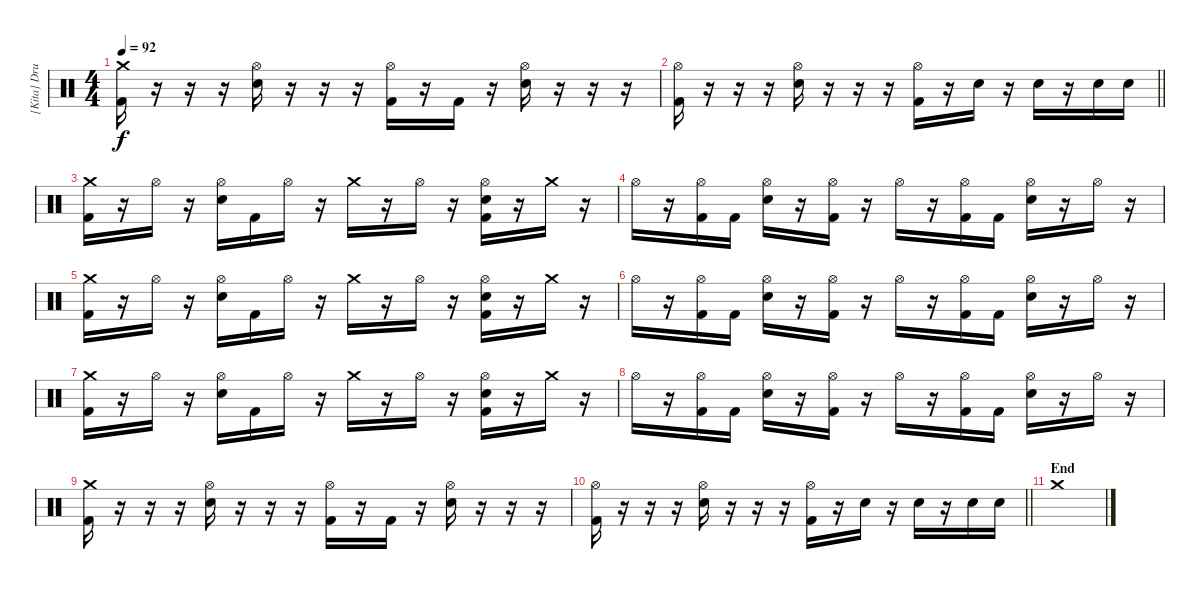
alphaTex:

\track ("[Kita] Drum" "[Kita] Dru") {instrument percussion}
\staff {score}
\articulation defaults
\ts (4 4)
\tempo 92
\clef neutral
\ks c
("Kick (hit) 2" "Crash medium (hit)").16{dy f} r.16 r.16 r.16 ("Hi-Hat (open)" "Electric Snare (hit)").16 r.16 r.16 r.16 ("Kick (hit) 2" "Hi-Hat (open)").16 r.16 "Kick (hit) 2".16 r.16 ("Hi-Hat (open)" "Electric Snare (hit)").16 r.16 r.16 r.16 |
\barLineRight lightlight
("Kick (hit) 2" "Hi-Hat (open)").16 r.16 r.16 r.16 ("Hi-Hat (open)" "Electric Snare (hit)").16 r.16 r.16 r.16 ("Kick (hit) 2" "Hi-Hat (open)").16 r.16 "Electric Snare (hit)".16 r.16 "Electric Snare (hit)".16 r.16 "Electric Snare (hit)".16 "Electric Snare (hit)".16 |
("Kick (hit) 2" "Crash medium (hit)").16 r.16 "Hi-Hat (open)".16 r.16 ("Hi-Hat (open)" "Electric Snare (hit)").16 "Kick (hit) 2".16 "Hi-Hat (open)".16 r.16 "Crash medium (hit)".16 r.16 "Hi-Hat (open)".16 r.16 ("Kick (hit) 2" "Hi-Hat (open)" "Electric Snare (hit)").16 r.16 "Crash medium (hit)".16 r.16 |
"Hi-Hat (open)".16 r.16 ("Kick (hit) 2" "Hi-Hat (open)").16 "Kick (hit) 2".16 ("Hi-Hat (open)" "Electric Snare (hit)").16 r.16 ("Kick (hit) 2" "Hi-Hat (open)").16 r.16 "Hi-Hat (open)".16 r.16 ("Kick (hit) 2" "Hi-Hat (open)").16 "Kick (hit) 2".16 ("Hi-Hat (open)" "Electric Snare (hit)").16 r.16 "Hi-Hat (open)".16 r.16 |
("Kick (hit) 2" "Crash medium (hit)").16 r.16 "Hi-Hat (open)".16 r.16 ("Hi-Hat (open)" "Electric Snare (hit)").16 "Kick (hit) 2".16 "Hi-Hat (open)".16 r.16 "Crash medium (hit)".16 r.16 "Hi-Hat (open)".16 r.16 ("Kick (hit) 2" "Hi-Hat (open)" "Electric Snare (hit)").16 r.16 "Crash medium (hit)".16 r.16 |
"Hi-Hat (open)".16 r.16 ("Kick (hit) 2" "Hi-Hat (open)").16 "Kick (hit) 2".16 ("Hi-Hat (open)" "Electric Snare (hit)").16 r.16 ("Kick (hit) 2" "Hi-Hat (open)").16 r.16 "Hi-Hat (open)".16 r.16 ("Kick (hit) 2" "Hi-Hat (open)").16 "Kick (hit) 2".16 ("Hi-Hat (open)" "Electric Snare (hit)").16 r.16 "Hi-Hat (open)".16 r.16 |
("Kick (hit) 2" "Crash medium (hit)").16 r.16 "Hi-Hat (open)".16 r.16 ("Hi-Hat (open)" "Electric Snare (hit)").16 "Kick (hit) 2".16 "Hi-Hat (open)".16 r.16 "Crash medium (hit)".16 r.16 "Hi-Hat (open)".16 r.16 ("Kick (hit) 2" "Hi-Hat (open)" "Electric Snare (hit)").16 r.16 "Crash medium (hit)".16 r.16 |
"Hi-Hat (open)".16 r.16 ("Kick (hit) 2" "Hi-Hat (open)").16 "Kick (hit) 2".16 ("Hi-Hat (open)" "Electric Snare (hit)").16 r.16 ("Kick (hit) 2" "Hi-Hat (open)").16 r.16 "Hi-Hat (open)".16 r.16 ("Kick (hit) 2" "Hi-Hat (open)").16 "Kick (hit) 2".16 ("Hi-Hat (open)" "Electric Snare (hit)").16 r.16 "Hi-Hat (open)".16 r.16 |
("Kick (hit) 2" "Crash medium (hit)").16 r.16 r.16 r.16 ("Hi-Hat (open)" "Electric Snare (hit)").16 r.16 r.16 r.16 ("Kick (hit) 2" "Hi-Hat (open)").16 r.16 "Kick (hit) 2".16 r.16 ("Hi-Hat (open)" "Electric Snare (hit)").16 r.16 r.16 r.16 |
\barLineRight lightlight
("Kick (hit) 2" "Hi-Hat (open)").16 r.16 r.16 r.16 ("Hi-Hat (open)" "Electric Snare (hit)").16 r.16 r.16 r.16 ("Kick (hit) 2" "Hi-Hat (open)").16 r.16 "Electric Snare (hit)".16 r.16 "Electric Snare (hit)".16 r.16 "Electric Snare (hit)".16 "Electric Snare (hit)".16 |
\section ("" "End")
"Crash medium (hit)".1
